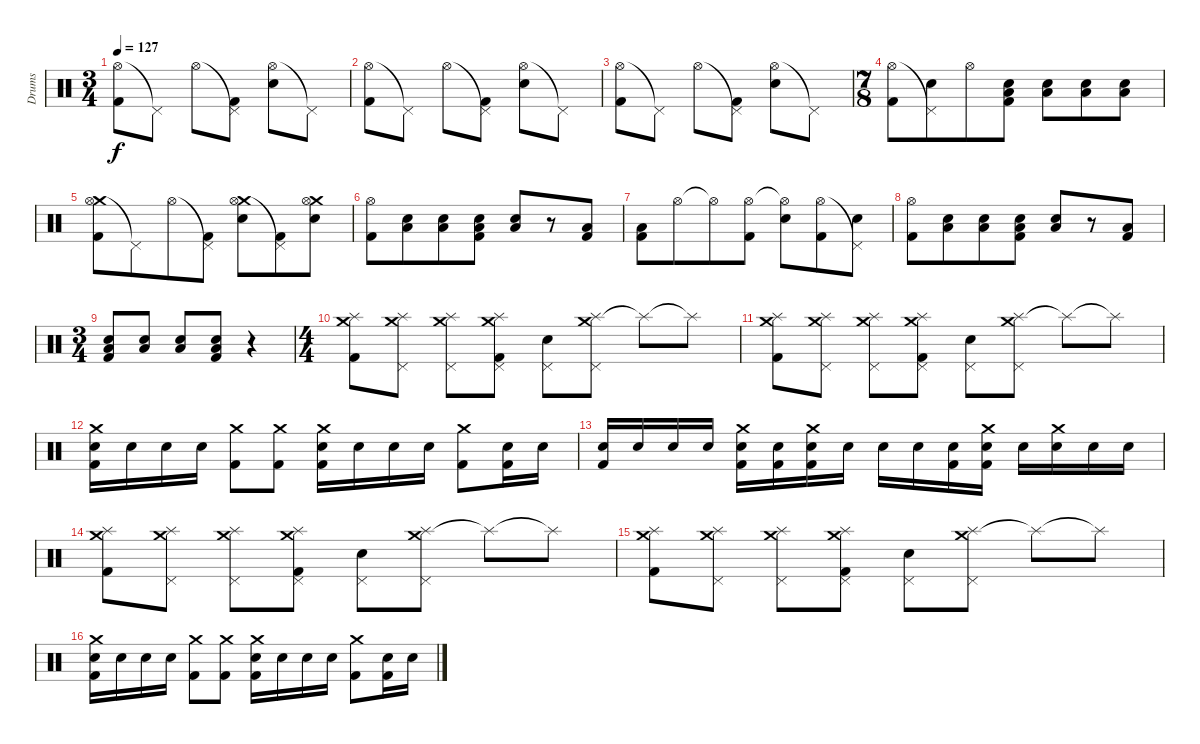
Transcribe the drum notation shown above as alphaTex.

\track ("Drums" "Drums") {instrument percussion}
\staff {score}
\articulation defaults
\ts (3 4)
\tempo 127
\clef neutral
\ks c
("Hi-Hat (open)" "Kick (hit) 2").8{dy f} "Pedal Hi-Hat (hit)"{t}.8 "Hi-Hat (open)".8 ("Pedal Hi-Hat (hit)"{t} "Kick (hit) 2").8 ("Hi-Hat (open)" "Electric Snare (hit)").8 "Pedal Hi-Hat (hit)"{t}.8 |
("Hi-Hat (open)" "Kick (hit) 2").8 "Pedal Hi-Hat (hit)"{t}.8 "Hi-Hat (open)".8 ("Pedal Hi-Hat (hit)"{t} "Kick (hit) 2").8 ("Hi-Hat (open)" "Electric Snare (hit)").8 "Pedal Hi-Hat (hit)"{t}.8 |
("Hi-Hat (open)" "Kick (hit) 2").8 "Pedal Hi-Hat (hit)"{t}.8 "Hi-Hat (open)".8 ("Pedal Hi-Hat (hit)"{t} "Kick (hit) 2").8 ("Hi-Hat (open)" "Electric Snare (hit)").8 "Pedal Hi-Hat (hit)"{t}.8 |
\ts (7 8)
("Hi-Hat (open)" "Kick (hit) 2").8 ("Pedal Hi-Hat (hit)"{t} "Electric Snare (hit)").8 "Hi-Hat (open)".8 ("Low Tom (hit)" "Electric Snare (hit)" "Kick (hit) 2").8 ("Low Tom (hit)" "Electric Snare (hit)").8 ("Low Tom (hit)" "Electric Snare (hit)").8 ("Low Tom (hit)" "Electric Snare (hit)").8 |
("Crash medium (hit)" "Hi-Hat (open)" "Kick (hit) 2").8 "Pedal Hi-Hat (hit)"{t}.8 "Hi-Hat (open)".8 ("Pedal Hi-Hat (hit)"{t} "Kick (hit) 2").8 ("Crash medium (hit)" "Hi-Hat (open)" "Electric Snare (hit)").8 ("Pedal Hi-Hat (hit)"{t} "Kick (hit) 2").8 ("Crash medium (hit)" "Hi-Hat (open)" "Electric Snare (hit)").8 |
("Hi-Hat (open)" "Kick (hit) 2").8 ("Low Tom (hit)" "Electric Snare (hit)").8 ("Low Tom (hit)" "Electric Snare (hit)").8 ("Low Tom (hit)" "Electric Snare (hit)" "Kick (hit) 2").8 ("Low Tom (hit)" "Electric Snare (hit)").8 r.8 ("Low Tom (hit)" "Kick (hit) 2").8 |
("Low Tom (hit)" "Kick (hit) 2").8 "Hi-Hat (open)".8 "Hi-Hat (open)"{t}.8 ("Hi-Hat (open)" "Kick (hit) 2").8 ("Hi-Hat (open)"{t} "Electric Snare (hit)").8 ("Hi-Hat (open)" "Kick (hit) 2").8 ("Pedal Hi-Hat (hit)"{t} "Electric Snare (hit)").8 |
("Hi-Hat (open)" "Kick (hit) 2").8 ("Low Tom (hit)" "Electric Snare (hit)").8 ("Low Tom (hit)" "Electric Snare (hit)").8 ("Low Tom (hit)" "Electric Snare (hit)" "Kick (hit) 2").8 ("Low Tom (hit)" "Electric Snare (hit)").8 r.8 ("Low Tom (hit)" "Kick (hit) 2").8 |
\ts (3 4)
("Low Tom (hit)" "Electric Snare (hit)" "Kick (hit) 2").8 ("Low Tom (hit)" "Electric Snare (hit)").8 ("Low Tom (hit)" "Electric Snare (hit)").8 ("Low Tom (hit)" "Electric Snare (hit)" "Kick (hit) 2").8 r.4 |
\ts (4 4)
("Crash medium (hit)" "Splash (hit)" "Kick (hit) 2").8 ("Crash medium (hit)" "Splash (hit)" "Pedal Hi-Hat (hit)").8 ("Crash medium (hit)" "Splash (hit)" "Pedal Hi-Hat (hit)").8 ("Crash medium (hit)" "Splash (hit)" "Pedal Hi-Hat (hit)" "Kick (hit) 2").8 ("Pedal Hi-Hat (hit)" "Electric Snare (hit)").8 ("Crash medium (hit)" "Splash (hit)" "Pedal Hi-Hat (hit)").8 "Splash (hit)"{t}.8 "Splash (hit)"{t}.8 |
("Crash medium (hit)" "Splash (hit)" "Kick (hit) 2").8 ("Crash medium (hit)" "Splash (hit)" "Pedal Hi-Hat (hit)").8 ("Crash medium (hit)" "Splash (hit)" "Pedal Hi-Hat (hit)").8 ("Crash medium (hit)" "Splash (hit)" "Pedal Hi-Hat (hit)" "Kick (hit) 2").8 ("Pedal Hi-Hat (hit)" "Electric Snare (hit)").8 ("Crash medium (hit)" "Splash (hit)" "Pedal Hi-Hat (hit)").8 "Splash (hit)"{t}.8 "Splash (hit)"{t}.8 |
("Crash medium (hit)" "Electric Snare (hit)" "Kick (hit) 2").16 "Electric Snare (hit)".16 "Electric Snare (hit)".16 "Electric Snare (hit)".16 ("Crash medium (hit)" "Kick (hit) 2").8 ("Crash medium (hit)" "Kick (hit) 2").8 ("Crash medium (hit)" "Electric Snare (hit)" "Kick (hit) 2").16 "Electric Snare (hit)".16 "Electric Snare (hit)".16 "Electric Snare (hit)".16 ("Crash medium (hit)" "Kick (hit) 2").8 ("Electric Snare (hit)" "Kick (hit) 2").16 "Electric Snare (hit)".16 |
("Electric Snare (hit)" "Kick (hit) 2").16 "Electric Snare (hit)".16 "Electric Snare (hit)".16 "Electric Snare (hit)".16 ("Crash medium (hit)" "Electric Snare (hit)" "Kick (hit) 2").16 ("Electric Snare (hit)" "Kick (hit) 2").16 ("Crash medium (hit)" "Electric Snare (hit)" "Kick (hit) 2").16 "Electric Snare (hit)".16 "Electric Snare (hit)".16 "Electric Snare (hit)".16 ("Electric Snare (hit)" "Kick (hit) 2").16 ("Crash medium (hit)" "Electric Snare (hit)" "Kick (hit) 2").16 "Electric Snare (hit)".16 ("Crash medium (hit)" "Electric Snare (hit)").16 "Electric Snare (hit)".16 "Electric Snare (hit)".16 |
("Crash medium (hit)" "Splash (hit)" "Kick (hit) 2").8 ("Crash medium (hit)" "Splash (hit)" "Pedal Hi-Hat (hit)").8 ("Crash medium (hit)" "Splash (hit)" "Pedal Hi-Hat (hit)").8 ("Crash medium (hit)" "Splash (hit)" "Pedal Hi-Hat (hit)" "Kick (hit) 2").8 ("Pedal Hi-Hat (hit)" "Electric Snare (hit)").8 ("Crash medium (hit)" "Splash (hit)" "Pedal Hi-Hat (hit)").8 "Splash (hit)"{t}.8 "Splash (hit)"{t}.8 |
("Crash medium (hit)" "Splash (hit)" "Kick (hit) 2").8 ("Crash medium (hit)" "Splash (hit)" "Pedal Hi-Hat (hit)").8 ("Crash medium (hit)" "Splash (hit)" "Pedal Hi-Hat (hit)").8 ("Crash medium (hit)" "Splash (hit)" "Pedal Hi-Hat (hit)" "Kick (hit) 2").8 ("Pedal Hi-Hat (hit)" "Electric Snare (hit)").8 ("Crash medium (hit)" "Splash (hit)" "Pedal Hi-Hat (hit)").8 "Splash (hit)"{t}.8 "Splash (hit)"{t}.8 |
("Crash medium (hit)" "Electric Snare (hit)" "Kick (hit) 2").16 "Electric Snare (hit)".16 "Electric Snare (hit)".16 "Electric Snare (hit)".16 ("Crash medium (hit)" "Kick (hit) 2").8 ("Crash medium (hit)" "Kick (hit) 2").8 ("Crash medium (hit)" "Electric Snare (hit)" "Kick (hit) 2").16 "Electric Snare (hit)".16 "Electric Snare (hit)".16 "Electric Snare (hit)".16 ("Crash medium (hit)" "Kick (hit) 2").8 ("Electric Snare (hit)" "Kick (hit) 2").16 "Electric Snare (hit)".16
